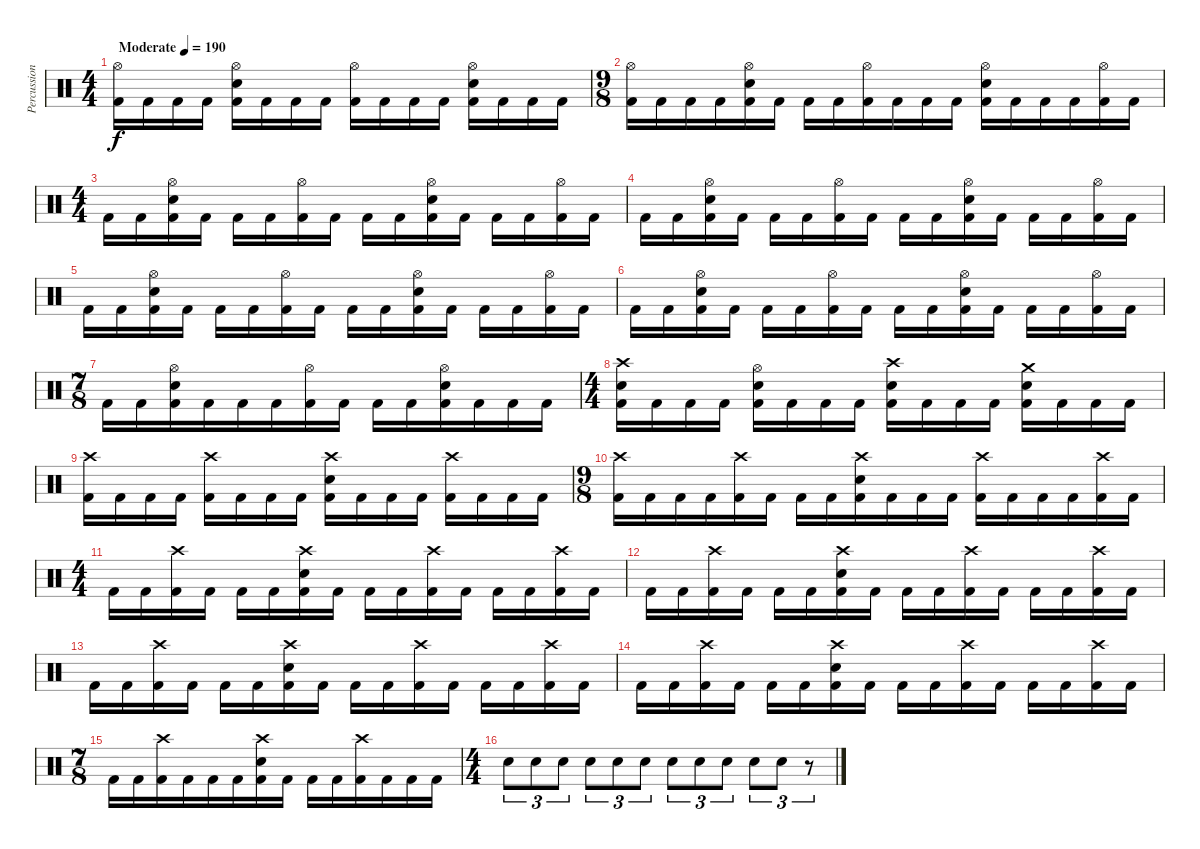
\track ("Percussion" "Percussion") {instrument percussion}
\staff {score}
\articulation defaults
\ts (4 4)
\tempo (190 "Moderate")
\clef neutral
\ks c
("Hi-Hat (open)" "Kick (hit) 2").16{dy f} "Kick (hit) 2".16 "Kick (hit) 2".16 "Kick (hit) 2".16 ("Hi-Hat (open)" "Electric Snare (hit)" "Kick (hit) 2").16 "Kick (hit) 2".16 "Kick (hit) 2".16 "Kick (hit) 2".16 ("Hi-Hat (open)" "Kick (hit) 2").16 "Kick (hit) 2".16 "Kick (hit) 2".16 "Kick (hit) 2".16 ("Hi-Hat (open)" "Electric Snare (hit)" "Kick (hit) 2").16 "Kick (hit) 2".16 "Kick (hit) 2".16 "Kick (hit) 2".16 |
\ts (9 8)
("Hi-Hat (open)" "Kick (hit) 2").16 "Kick (hit) 2".16 "Kick (hit) 2".16 "Kick (hit) 2".16 ("Hi-Hat (open)" "Electric Snare (hit)" "Kick (hit) 2").16 "Kick (hit) 2".16 "Kick (hit) 2".16 "Kick (hit) 2".16 ("Hi-Hat (open)" "Kick (hit) 2").16 "Kick (hit) 2".16 "Kick (hit) 2".16 "Kick (hit) 2".16 ("Hi-Hat (open)" "Electric Snare (hit)" "Kick (hit) 2").16 "Kick (hit) 2".16 "Kick (hit) 2".16 "Kick (hit) 2".16 ("Hi-Hat (open)" "Kick (hit) 2").16 "Kick (hit) 2".16 |
\ts (4 4)
"Kick (hit) 2".16 "Kick (hit) 2".16 ("Hi-Hat (open)" "Electric Snare (hit)" "Kick (hit) 2").16 "Kick (hit) 2".16 "Kick (hit) 2".16 "Kick (hit) 2".16 ("Hi-Hat (open)" "Kick (hit) 2").16 "Kick (hit) 2".16 "Kick (hit) 2".16 "Kick (hit) 2".16 ("Hi-Hat (open)" "Electric Snare (hit)" "Kick (hit) 2").16 "Kick (hit) 2".16 "Kick (hit) 2".16 "Kick (hit) 2".16 ("Hi-Hat (open)" "Kick (hit) 2").16 "Kick (hit) 2".16 |
"Kick (hit) 2".16 "Kick (hit) 2".16 ("Hi-Hat (open)" "Electric Snare (hit)" "Kick (hit) 2").16 "Kick (hit) 2".16 "Kick (hit) 2".16 "Kick (hit) 2".16 ("Hi-Hat (open)" "Kick (hit) 2").16 "Kick (hit) 2".16 "Kick (hit) 2".16 "Kick (hit) 2".16 ("Hi-Hat (open)" "Electric Snare (hit)" "Kick (hit) 2").16 "Kick (hit) 2".16 "Kick (hit) 2".16 "Kick (hit) 2".16 ("Hi-Hat (open)" "Kick (hit) 2").16 "Kick (hit) 2".16 |
"Kick (hit) 2".16 "Kick (hit) 2".16 ("Hi-Hat (open)" "Electric Snare (hit)" "Kick (hit) 2").16 "Kick (hit) 2".16 "Kick (hit) 2".16 "Kick (hit) 2".16 ("Hi-Hat (open)" "Kick (hit) 2").16 "Kick (hit) 2".16 "Kick (hit) 2".16 "Kick (hit) 2".16 ("Hi-Hat (open)" "Electric Snare (hit)" "Kick (hit) 2").16 "Kick (hit) 2".16 "Kick (hit) 2".16 "Kick (hit) 2".16 ("Hi-Hat (open)" "Kick (hit) 2").16 "Kick (hit) 2".16 |
"Kick (hit) 2".16 "Kick (hit) 2".16 ("Hi-Hat (open)" "Electric Snare (hit)" "Kick (hit) 2").16 "Kick (hit) 2".16 "Kick (hit) 2".16 "Kick (hit) 2".16 ("Hi-Hat (open)" "Kick (hit) 2").16 "Kick (hit) 2".16 "Kick (hit) 2".16 "Kick (hit) 2".16 ("Hi-Hat (open)" "Electric Snare (hit)" "Kick (hit) 2").16 "Kick (hit) 2".16 "Kick (hit) 2".16 "Kick (hit) 2".16 ("Hi-Hat (open)" "Kick (hit) 2").16 "Kick (hit) 2".16 |
\ts (7 8)
"Kick (hit) 2".16 "Kick (hit) 2".16 ("Hi-Hat (open)" "Electric Snare (hit)" "Kick (hit) 2").16 "Kick (hit) 2".16 "Kick (hit) 2".16 "Kick (hit) 2".16 ("Hi-Hat (open)" "Kick (hit) 2").16 "Kick (hit) 2".16 "Kick (hit) 2".16 "Kick (hit) 2".16 ("Hi-Hat (open)" "Electric Snare (hit)" "Kick (hit) 2").16 "Kick (hit) 2".16 "Kick (hit) 2".16 "Kick (hit) 2".16 |
\ts (4 4)
("Crash high (hit)" "Electric Snare (hit)" "Kick (hit) 2").16 "Kick (hit) 2".16 "Kick (hit) 2".16 "Kick (hit) 2".16 ("Hi-Hat (open)" "Electric Snare (hit)" "Kick (hit) 2").16 "Kick (hit) 2".16 "Kick (hit) 2".16 "Kick (hit) 2".16 ("Crash high (hit)" "Electric Snare (hit)" "Kick (hit) 2").16 "Kick (hit) 2".16 "Kick (hit) 2".16 "Kick (hit) 2".16 ("Crash medium (hit)" "Electric Snare (hit)" "Kick (hit) 2").16 "Kick (hit) 2".16 "Kick (hit) 2".16 "Kick (hit) 2".16 |
("Crash high (hit)" "Kick (hit) 2").16 "Kick (hit) 2".16 "Kick (hit) 2".16 "Kick (hit) 2".16 ("Crash high (hit)" "Kick (hit) 2").16 "Kick (hit) 2".16 "Kick (hit) 2".16 "Kick (hit) 2".16 ("Crash high (hit)" "Electric Snare (hit)" "Kick (hit) 2").16 "Kick (hit) 2".16 "Kick (hit) 2".16 "Kick (hit) 2".16 ("Crash high (hit)" "Kick (hit) 2").16 "Kick (hit) 2".16 "Kick (hit) 2".16 "Kick (hit) 2".16 |
\ts (9 8)
("Crash high (hit)" "Kick (hit) 2").16 "Kick (hit) 2".16 "Kick (hit) 2".16 "Kick (hit) 2".16 ("Crash high (hit)" "Kick (hit) 2").16 "Kick (hit) 2".16 "Kick (hit) 2".16 "Kick (hit) 2".16 ("Crash high (hit)" "Electric Snare (hit)" "Kick (hit) 2").16 "Kick (hit) 2".16 "Kick (hit) 2".16 "Kick (hit) 2".16 ("Crash high (hit)" "Kick (hit) 2").16 "Kick (hit) 2".16 "Kick (hit) 2".16 "Kick (hit) 2".16 ("Crash high (hit)" "Kick (hit) 2").16 "Kick (hit) 2".16 |
\ts (4 4)
"Kick (hit) 2".16 "Kick (hit) 2".16 ("Crash high (hit)" "Kick (hit) 2").16 "Kick (hit) 2".16 "Kick (hit) 2".16 "Kick (hit) 2".16 ("Crash high (hit)" "Electric Snare (hit)" "Kick (hit) 2").16 "Kick (hit) 2".16 "Kick (hit) 2".16 "Kick (hit) 2".16 ("Crash high (hit)" "Kick (hit) 2").16 "Kick (hit) 2".16 "Kick (hit) 2".16 "Kick (hit) 2".16 ("Crash high (hit)" "Kick (hit) 2").16 "Kick (hit) 2".16 |
"Kick (hit) 2".16 "Kick (hit) 2".16 ("Crash high (hit)" "Kick (hit) 2").16 "Kick (hit) 2".16 "Kick (hit) 2".16 "Kick (hit) 2".16 ("Crash high (hit)" "Electric Snare (hit)" "Kick (hit) 2").16 "Kick (hit) 2".16 "Kick (hit) 2".16 "Kick (hit) 2".16 ("Crash high (hit)" "Kick (hit) 2").16 "Kick (hit) 2".16 "Kick (hit) 2".16 "Kick (hit) 2".16 ("Crash high (hit)" "Kick (hit) 2").16 "Kick (hit) 2".16 |
"Kick (hit) 2".16 "Kick (hit) 2".16 ("Crash high (hit)" "Kick (hit) 2").16 "Kick (hit) 2".16 "Kick (hit) 2".16 "Kick (hit) 2".16 ("Crash high (hit)" "Electric Snare (hit)" "Kick (hit) 2").16 "Kick (hit) 2".16 "Kick (hit) 2".16 "Kick (hit) 2".16 ("Crash high (hit)" "Kick (hit) 2").16 "Kick (hit) 2".16 "Kick (hit) 2".16 "Kick (hit) 2".16 ("Crash high (hit)" "Kick (hit) 2").16 "Kick (hit) 2".16 |
"Kick (hit) 2".16 "Kick (hit) 2".16 ("Crash high (hit)" "Kick (hit) 2").16 "Kick (hit) 2".16 "Kick (hit) 2".16 "Kick (hit) 2".16 ("Crash high (hit)" "Electric Snare (hit)" "Kick (hit) 2").16 "Kick (hit) 2".16 "Kick (hit) 2".16 "Kick (hit) 2".16 ("Crash high (hit)" "Kick (hit) 2").16 "Kick (hit) 2".16 "Kick (hit) 2".16 "Kick (hit) 2".16 ("Crash high (hit)" "Kick (hit) 2").16 "Kick (hit) 2".16 |
\ts (7 8)
"Kick (hit) 2".16 "Kick (hit) 2".16 ("Crash high (hit)" "Kick (hit) 2").16 "Kick (hit) 2".16 "Kick (hit) 2".16 "Kick (hit) 2".16 ("Crash high (hit)" "Electric Snare (hit)" "Kick (hit) 2").16 "Kick (hit) 2".16 "Kick (hit) 2".16 "Kick (hit) 2".16 ("Crash high (hit)" "Kick (hit) 2").16 "Kick (hit) 2".16 "Kick (hit) 2".16 "Kick (hit) 2".16 |
\ts (4 4)
"Electric Snare (hit)".8{tu (3 2)} "Electric Snare (hit)".8{tu (3 2)} "Electric Snare (hit)".8{tu (3 2)} "Electric Snare (hit)".8{tu (3 2)} "Electric Snare (hit)".8{tu (3 2)} "Electric Snare (hit)".8{tu (3 2)} "Electric Snare (hit)".8{tu (3 2)} "Electric Snare (hit)".8{tu (3 2)} "Electric Snare (hit)".8{tu (3 2)} "Electric Snare (hit)".8{tu (3 2)} "Electric Snare (hit)".8{tu (3 2)} r.8{tu (3 2)}
